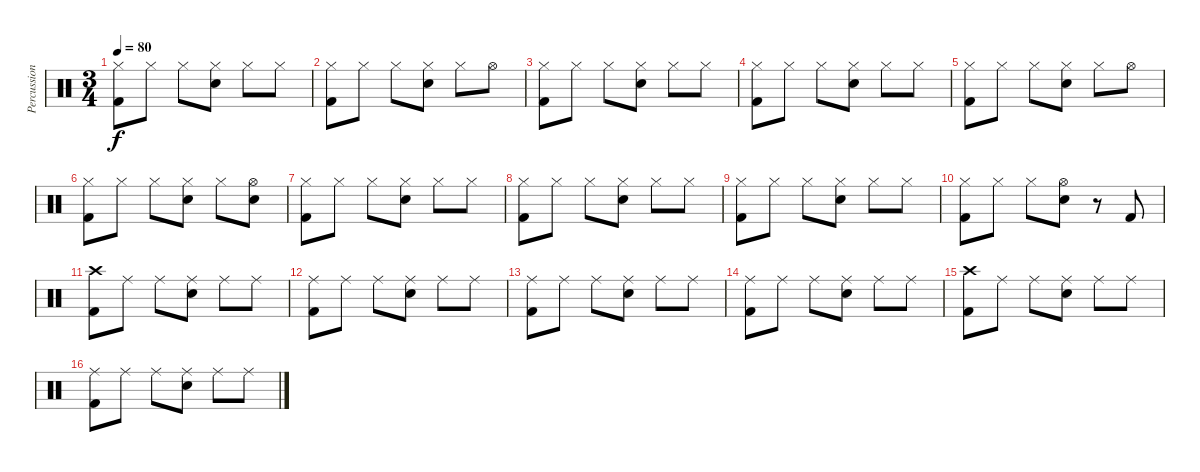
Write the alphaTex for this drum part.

\track ("Percussion" "Percussion") {instrument percussion}
\staff {score}
\articulation defaults
\ts (3 4)
\tempo 80
\clef neutral
\ks c
("Hi-Hat (closed)" "Kick (hit) 2").8{dy f} "Hi-Hat (closed)".8 "Hi-Hat (closed)".8 ("Hi-Hat (closed)" "Snare (hit) 2").8 "Hi-Hat (closed)".8 "Hi-Hat (closed)".8 |
("Hi-Hat (closed)" "Kick (hit) 2").8 "Hi-Hat (closed)".8 "Hi-Hat (closed)".8 ("Hi-Hat (closed)" "Snare (hit) 2").8 "Hi-Hat (closed)".8 "Hi-Hat (open)".8 |
("Hi-Hat (closed)" "Kick (hit) 2").8 "Hi-Hat (closed)".8 "Hi-Hat (closed)".8 ("Hi-Hat (closed)" "Snare (hit) 2").8 "Hi-Hat (closed)".8 "Hi-Hat (closed)".8 |
("Hi-Hat (closed)" "Kick (hit) 2").8 "Hi-Hat (closed)".8 "Hi-Hat (closed)".8 ("Hi-Hat (closed)" "Snare (hit) 2").8 "Hi-Hat (closed)".8 "Hi-Hat (closed)".8 |
("Hi-Hat (closed)" "Kick (hit) 2").8 "Hi-Hat (closed)".8 "Hi-Hat (closed)".8 ("Hi-Hat (closed)" "Snare (hit) 2").8 "Hi-Hat (closed)".8 "Hi-Hat (open)".8 |
("Hi-Hat (closed)" "Kick (hit) 2").8 "Hi-Hat (closed)".8 "Hi-Hat (closed)".8 ("Hi-Hat (closed)" "Snare (hit) 2").8 "Hi-Hat (closed)".8 ("Hi-Hat (open)" "Snare (hit) 2").8 |
("Hi-Hat (closed)" "Kick (hit) 2").8 "Hi-Hat (closed)".8 "Hi-Hat (closed)".8 ("Hi-Hat (closed)" "Snare (hit) 2").8 "Hi-Hat (closed)".8 "Hi-Hat (closed)".8 |
("Hi-Hat (closed)" "Kick (hit) 2").8 "Hi-Hat (closed)".8 "Hi-Hat (closed)".8 ("Hi-Hat (closed)" "Snare (hit) 2").8 "Hi-Hat (closed)".8 "Hi-Hat (closed)".8 |
("Hi-Hat (closed)" "Kick (hit) 2").8 "Hi-Hat (closed)".8 "Hi-Hat (closed)".8 ("Hi-Hat (closed)" "Snare (hit) 2").8 "Hi-Hat (closed)".8 "Hi-Hat (closed)".8 |
("Hi-Hat (closed)" "Kick (hit) 2").8 "Hi-Hat (closed)".8 "Hi-Hat (closed)".8 ("Hi-Hat (open)" "Snare (hit) 2").8 r.8 "Kick (hit) 2".8 |
("Crash high (hit)" "Kick (hit) 2").8 "Ride (middle)".8 "Ride (middle)".8 ("Ride (middle)" "Snare (hit) 2").8 "Ride (middle)".8 "Ride (middle)".8 |
("Ride (middle)" "Kick (hit) 2").8 "Ride (middle)".8 "Ride (middle)".8 ("Ride (middle)" "Snare (hit) 2").8 "Ride (middle)".8 "Ride (middle)".8 |
("Ride (middle)" "Kick (hit) 2").8 "Ride (middle)".8 "Ride (middle)".8 ("Ride (middle)" "Snare (hit) 2").8 "Ride (middle)".8 "Ride (middle)".8 |
("Ride (middle)" "Kick (hit) 2").8 "Ride (middle)".8 "Ride (middle)".8 ("Ride (middle)" "Snare (hit) 2").8 "Ride (middle)".8 "Ride (middle)".8 |
("Crash high (hit)" "Kick (hit) 2").8 "Ride (middle)".8 "Ride (middle)".8 ("Ride (middle)" "Snare (hit) 2").8 "Ride (middle)".8 "Ride (middle)".8 |
("Ride (middle)" "Kick (hit) 2").8 "Ride (middle)".8 "Ride (middle)".8 ("Ride (middle)" "Snare (hit) 2").8 "Ride (middle)".8 "Ride (middle)".8
